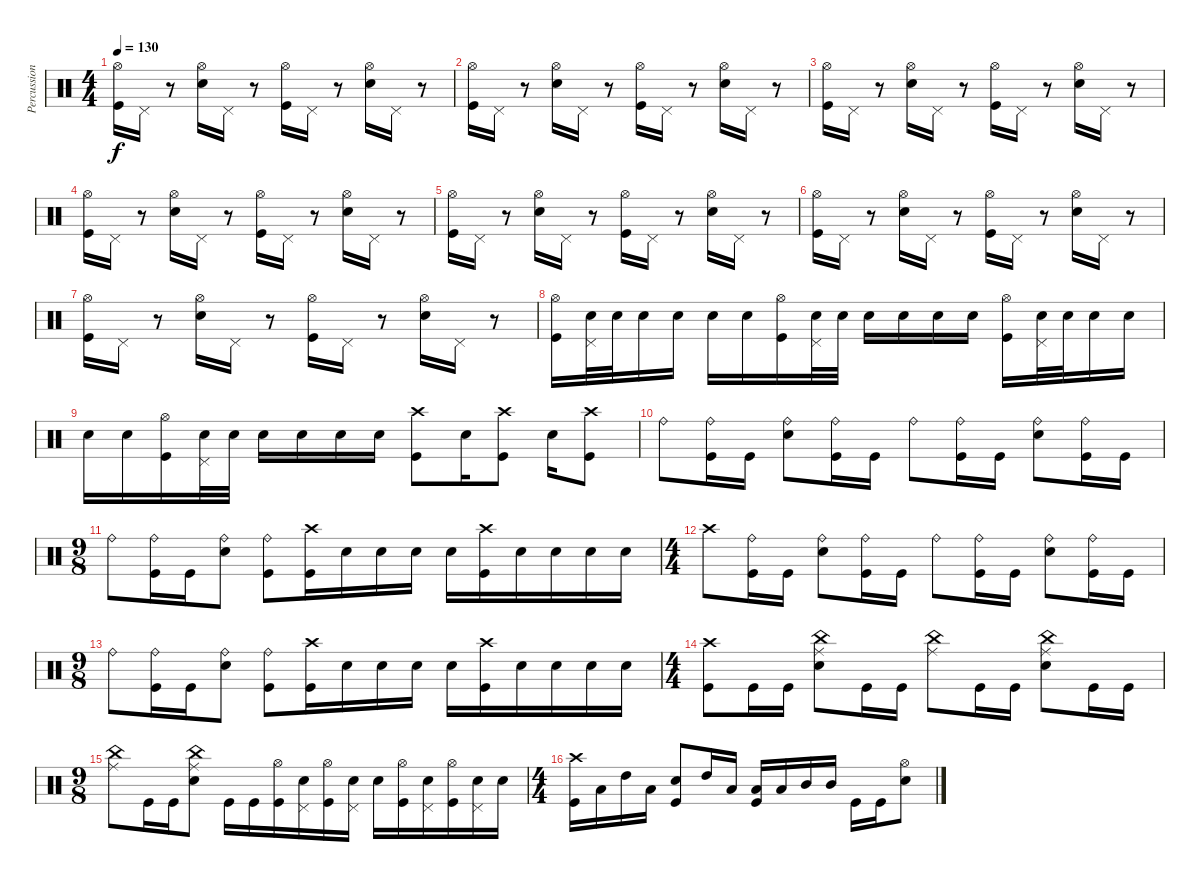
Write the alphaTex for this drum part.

\track ("Percussion" "Percussion") {instrument percussion}
\staff {score}
\articulation defaults
\ts (4 4)
\tempo 130
\clef neutral
\ks c
("Hi-Hat (open)" "Kick (hit)").16{dy f} "Pedal Hi-Hat (hit)".16 r.8 ("Hi-Hat (open)" "Snare (hit) 2").16 "Pedal Hi-Hat (hit)".16 r.8 ("Hi-Hat (open)" "Kick (hit)").16 "Pedal Hi-Hat (hit)".16 r.8 ("Hi-Hat (open)" "Snare (hit) 2").16 "Pedal Hi-Hat (hit)".16 r.8 |
("Hi-Hat (open)" "Kick (hit)").16 "Pedal Hi-Hat (hit)".16 r.8 ("Hi-Hat (open)" "Snare (hit) 2").16 "Pedal Hi-Hat (hit)".16 r.8 ("Hi-Hat (open)" "Kick (hit)").16 "Pedal Hi-Hat (hit)".16 r.8 ("Hi-Hat (open)" "Snare (hit) 2").16 "Pedal Hi-Hat (hit)".16 r.8 |
("Hi-Hat (open)" "Kick (hit)").16 "Pedal Hi-Hat (hit)".16 r.8 ("Hi-Hat (open)" "Snare (hit) 2").16 "Pedal Hi-Hat (hit)".16 r.8 ("Hi-Hat (open)" "Kick (hit)").16 "Pedal Hi-Hat (hit)".16 r.8 ("Hi-Hat (open)" "Snare (hit) 2").16 "Pedal Hi-Hat (hit)".16 r.8 |
("Hi-Hat (open)" "Kick (hit)").16 "Pedal Hi-Hat (hit)".16 r.8 ("Hi-Hat (open)" "Snare (hit) 2").16 "Pedal Hi-Hat (hit)".16 r.8 ("Hi-Hat (open)" "Kick (hit)").16 "Pedal Hi-Hat (hit)".16 r.8 ("Hi-Hat (open)" "Snare (hit) 2").16 "Pedal Hi-Hat (hit)".16 r.8 |
("Hi-Hat (open)" "Kick (hit)").16 "Pedal Hi-Hat (hit)".16 r.8 ("Hi-Hat (open)" "Snare (hit) 2").16 "Pedal Hi-Hat (hit)".16 r.8 ("Hi-Hat (open)" "Kick (hit)").16 "Pedal Hi-Hat (hit)".16 r.8 ("Hi-Hat (open)" "Snare (hit) 2").16 "Pedal Hi-Hat (hit)".16 r.8 |
("Hi-Hat (open)" "Kick (hit)").16 "Pedal Hi-Hat (hit)".16 r.8 ("Hi-Hat (open)" "Snare (hit) 2").16 "Pedal Hi-Hat (hit)".16 r.8 ("Hi-Hat (open)" "Kick (hit)").16 "Pedal Hi-Hat (hit)".16 r.8 ("Hi-Hat (open)" "Snare (hit) 2").16 "Pedal Hi-Hat (hit)".16 r.8 |
("Hi-Hat (open)" "Kick (hit)").16 "Pedal Hi-Hat (hit)".16 r.8 ("Hi-Hat (open)" "Snare (hit) 2").16 "Pedal Hi-Hat (hit)".16 r.8 ("Hi-Hat (open)" "Kick (hit)").16 "Pedal Hi-Hat (hit)".16 r.8 ("Hi-Hat (open)" "Snare (hit) 2").16 "Pedal Hi-Hat (hit)".16 r.8 |
("Kick (hit)" "Hi-Hat (open)").16 ("Snare (hit) 2" "Pedal Hi-Hat (hit)").32 "Snare (hit) 2".32 "Snare (hit) 2".16 "Snare (hit) 2".16 "Snare (hit) 2".16 "Snare (hit) 2".16 ("Hi-Hat (open)" "Kick (hit)").16 ("Snare (hit) 2" "Pedal Hi-Hat (hit)").32 "Snare (hit) 2".32 "Snare (hit) 2".16 "Snare (hit) 2".16 "Snare (hit) 2".16 "Snare (hit) 2".16 ("Kick (hit)" "Hi-Hat (open)").16 ("Snare (hit) 2" "Pedal Hi-Hat (hit)").32 "Snare (hit) 2".32 "Snare (hit) 2".16 "Snare (hit) 2".16 |
"Snare (hit) 2".16 "Snare (hit) 2".16 ("Hi-Hat (open)" "Kick (hit)").16 ("Snare (hit) 2" "Pedal Hi-Hat (hit)").32 "Snare (hit) 2".32 "Snare (hit) 2".16 "Snare (hit) 2".16 "Snare (hit) 2".16 "Snare (hit) 2".16 ("Kick (hit)" "Crash high (hit)").8 "Electric Snare (hit)".16 ("Kick (hit)" "Crash high (hit)").8 "Electric Snare (hit)".16 ("Kick (hit)" "Crash high (hit)").8 |
"Ride (bell)".8 ("Ride (bell)" "Kick (hit)").16 "Kick (hit)".16 ("Ride (bell)" "Snare (hit) 2").8 ("Ride (bell)" "Kick (hit)").16 "Kick (hit)".16 "Ride (bell)".8 ("Ride (bell)" "Kick (hit)").16 "Kick (hit)".16 ("Ride (bell)" "Snare (hit) 2").8 ("Ride (bell)" "Kick (hit)").16 "Kick (hit)".16 |
\ts (9 8)
"Ride (bell)".8 ("Ride (bell)" "Kick (hit)").16 "Kick (hit)".16 ("Ride (bell)" "Snare (hit) 2").8 ("Ride (bell)" "Kick (hit)").8 ("Kick (hit)" "Crash high (hit)").16 "Snare (hit) 2".16 "Snare (hit) 2".16 "Snare (hit) 2".16 "Snare (hit) 2".16 ("Kick (hit)" "Crash high (hit)").16 "Snare (hit) 2".16 "Snare (hit) 2".16 "Snare (hit) 2".16 "Snare (hit) 2".16 |
\ts (4 4)
"Crash high (hit)".8 ("Ride (bell)" "Kick (hit)").16 "Kick (hit)".16 ("Ride (bell)" "Snare (hit) 2").8 ("Ride (bell)" "Kick (hit)").16 "Kick (hit)".16 "Ride (bell)".8 ("Ride (bell)" "Kick (hit)").16 "Kick (hit)".16 ("Ride (bell)" "Snare (hit) 2").8 ("Ride (bell)" "Kick (hit)").16 "Kick (hit)".16 |
\ts (9 8)
"Ride (bell)".8 ("Ride (bell)" "Kick (hit)").16 "Kick (hit)".16 ("Ride (bell)" "Snare (hit) 2").8 ("Ride (bell)" "Kick (hit)").8 ("Kick (hit)" "Crash high (hit)").16 "Snare (hit) 2".16 "Snare (hit) 2".16 "Snare (hit) 2".16 "Snare (hit) 2".16 ("Kick (hit)" "Crash high (hit)").16 "Snare (hit) 2".16 "Snare (hit) 2".16 "Snare (hit) 2".16 "Snare (hit) 2".16 |
\ts (4 4)
("Crash high (hit)" "Kick (hit)").8 "Kick (hit)".16 "Kick (hit)".16 ("Ride (middle)" "China (hit)" "Snare (hit) 2").8 "Kick (hit)".16 "Kick (hit)".16 ("Ride (middle)" "China (hit)").8 "Kick (hit)".16 "Kick (hit)".16 ("Ride (middle)" "China (hit)" "Snare (hit) 2").8 "Kick (hit)".16 "Kick (hit)".16 |
\ts (9 8)
("Ride (middle)" "China (hit)").8 "Kick (hit)".16 "Kick (hit)".16 ("Ride (middle)" "China (hit)" "Snare (hit) 2").8 "Kick (hit)".16 "Kick (hit)".16 ("Kick (hit)" "Hi-Hat (open)").16 ("Electric Snare (hit)" "Pedal Hi-Hat (hit)").16 ("Kick (hit)" "Hi-Hat (open)").16 ("Electric Snare (hit)" "Pedal Hi-Hat (hit)").16 "Electric Snare (hit)".16 ("Kick (hit)" "Hi-Hat (open)").16 ("Electric Snare (hit)" "Pedal Hi-Hat (hit)").16 ("Kick (hit)" "Hi-Hat (open)").16 ("Electric Snare (hit)" "Pedal Hi-Hat (hit)").16 "Electric Snare (hit)".16 |
\ts (4 4)
("Kick (hit)" "Crash high (hit)").16 "Low Tom (hit)".16 "High Tom (hit)".16 "Low Tom (hit)".16 ("Snare (hit) 2" "Kick (hit)").8 "High Tom (hit)".16 "Low Tom (hit)".16 ("Kick (hit)" "Low Tom (hit)").16 "Low Tom (hit)".16 "Mid Tom (hit)".16 "Mid Tom (hit)".16 "Kick (hit)".16 "Kick (hit)".16 ("Snare (hit) 2" "Hi-Hat (open)").8
